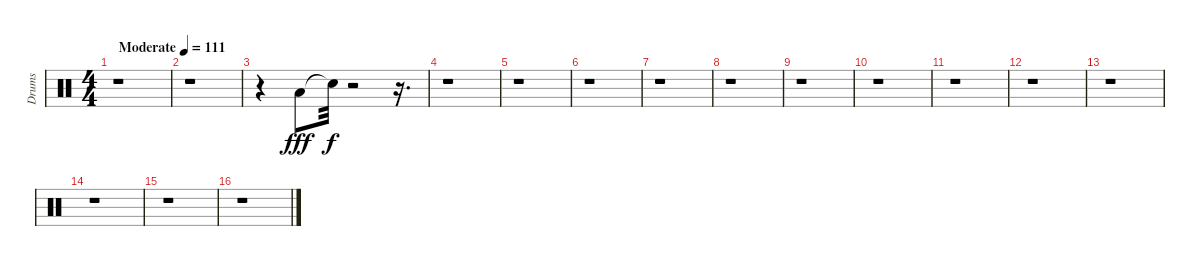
\track ("Drums" "Drums") {instrument percussion}
\staff {score}
\articulation defaults
\ts (4 4)
\tempo (111 "Moderate")
\clef neutral
\ks c
r.1{dy fff} |
r.1 |
r.4 "Low Floor Tom (hit)".8 "Snare (hit)"{t}.32{dy f} r.2 r.16{d} |
r.1 |
r.1 |
r.1 |
r.1 |
r.1 |
r.1 |
r.1 |
r.1 |
r.1 |
r.1 |
r.1 |
r.1 |
r.1
